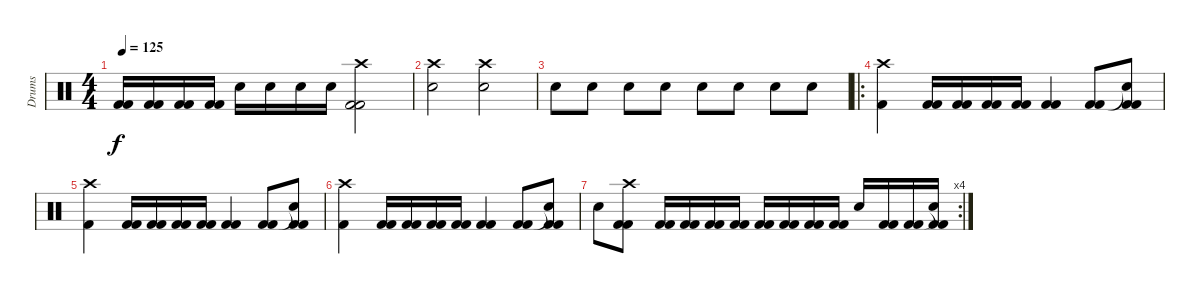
\track ("Drums" "Drums") {instrument percussion}
\staff {score}
\articulation defaults
\ts (4 4)
\tempo 125
\clef neutral
\ks c
("Kick (hit) 2" "Kick (hit) 2").16{dy f} ("Kick (hit) 2" "Kick (hit) 2").16 ("Kick (hit) 2" "Kick (hit) 2").16 ("Kick (hit) 2" "Kick (hit) 2").16 "Snare (hit) 2".16 "Snare (hit) 2".16 "Snare (hit) 2".16 "Snare (hit) 2".16 ("Crash high (hit)" "Kick (hit) 2" "Kick (hit) 2").2 |
("Crash high (hit)" "Snare (hit) 2").2 ("Crash high (hit)" "Snare (hit) 2").2 |
"Snare (hit) 2".8 "Snare (hit) 2".8 "Snare (hit) 2".8 "Snare (hit) 2".8 "Snare (hit) 2".8 "Snare (hit) 2".8 "Snare (hit) 2".8 "Snare (hit) 2".8 |
\ro
("Crash high (hit)" "Kick (hit) 2").4 ("Kick (hit) 2" "Kick (hit) 2").16 ("Kick (hit) 2" "Kick (hit) 2").16 ("Kick (hit) 2" "Kick (hit) 2").16 ("Kick (hit) 2" "Kick (hit) 2").16 ("Kick (hit) 2" "Kick (hit) 2").4 ("Kick (hit) 2" "Kick (hit) 2").8 ("Snare (hit)"{t} "Kick (hit) 2" "Kick (hit) 2").8 |
("Crash high (hit)" "Kick (hit) 2").4 ("Kick (hit) 2" "Kick (hit) 2").16 ("Kick (hit) 2" "Kick (hit) 2").16 ("Kick (hit) 2" "Kick (hit) 2").16 ("Kick (hit) 2" "Kick (hit) 2").16 ("Kick (hit) 2" "Kick (hit) 2").4 ("Kick (hit) 2" "Kick (hit) 2").8 ("Snare (hit)"{t} "Kick (hit) 2" "Kick (hit) 2").8 |
("Crash high (hit)" "Kick (hit) 2").4 ("Kick (hit) 2" "Kick (hit) 2").16 ("Kick (hit) 2" "Kick (hit) 2").16 ("Kick (hit) 2" "Kick (hit) 2").16 ("Kick (hit) 2" "Kick (hit) 2").16 ("Kick (hit) 2" "Kick (hit) 2").4 ("Kick (hit) 2" "Kick (hit) 2").8 ("Snare (hit)"{t} "Kick (hit) 2" "Kick (hit) 2").8 |
\rc 4 "Snare (hit) 2".8
("Crash high (hit)" "Kick (hit) 2" "Kick (hit) 2").8 ("Kick (hit) 2" "Kick (hit) 2").16 ("Kick (hit) 2" "Kick (hit) 2").16 ("Kick (hit) 2" "Kick (hit) 2").16 ("Kick (hit) 2" "Kick (hit) 2").16 ("Kick (hit) 2" "Kick (hit) 2").16 ("Kick (hit) 2" "Kick (hit) 2").16 ("Kick (hit) 2" "Kick (hit) 2").16 ("Kick (hit) 2" "Kick (hit) 2").16 "Snare (hit) 2".16 ("Kick (hit) 2" "Kick (hit) 2").16 ("Kick (hit) 2" "Kick (hit) 2").16 ("Snare (hit)"{t} "Kick (hit) 2" "Kick (hit) 2").16
